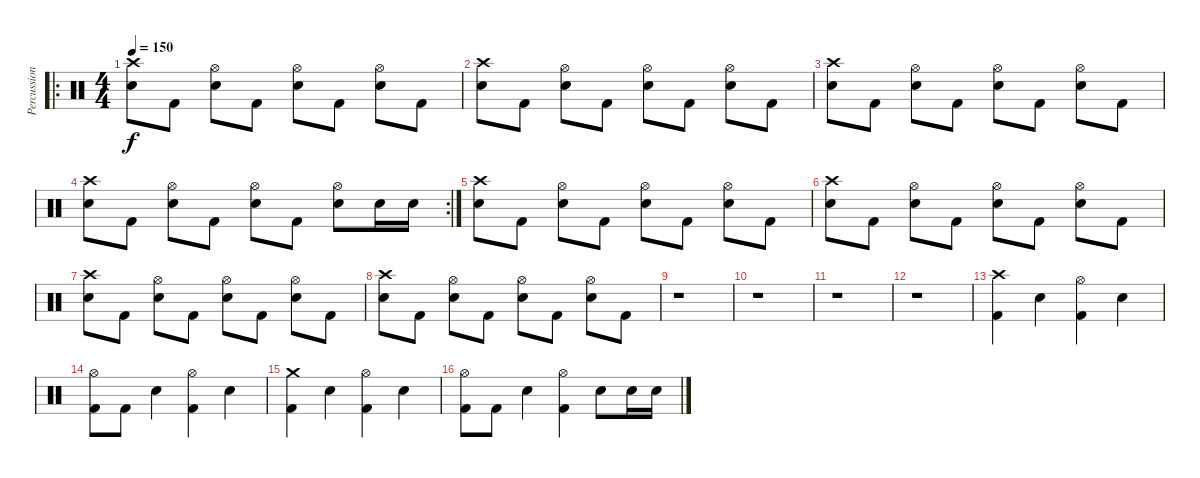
\track ("Percussion" "Percussion") {instrument percussion}
\staff {score}
\articulation defaults
\ro
\ts (4 4)
\tempo 150
\clef neutral
\ks c
("Crash high (hit)" "Snare (hit) 2").8{dy f} "Kick (hit) 2".8 ("Hi-Hat (open)" "Snare (hit) 2").8 "Kick (hit) 2".8 ("Hi-Hat (open)" "Snare (hit) 2").8 "Kick (hit) 2".8 ("Hi-Hat (open)" "Snare (hit) 2").8 "Kick (hit) 2".8 |
("Crash high (hit)" "Snare (hit) 2").8 "Kick (hit) 2".8 ("Hi-Hat (open)" "Snare (hit) 2").8 "Kick (hit) 2".8 ("Hi-Hat (open)" "Snare (hit) 2").8 "Kick (hit) 2".8 ("Hi-Hat (open)" "Snare (hit) 2").8 "Kick (hit) 2".8 |
("Crash high (hit)" "Snare (hit) 2").8 "Kick (hit) 2".8 ("Hi-Hat (open)" "Snare (hit) 2").8 "Kick (hit) 2".8 ("Hi-Hat (open)" "Snare (hit) 2").8 "Kick (hit) 2".8 ("Hi-Hat (open)" "Snare (hit) 2").8 "Kick (hit) 2".8 |
\rc 2
("Crash high (hit)" "Snare (hit) 2").8 "Kick (hit) 2".8 ("Hi-Hat (open)" "Snare (hit) 2").8 "Kick (hit) 2".8 ("Hi-Hat (open)" "Snare (hit) 2").8 "Kick (hit) 2".8 ("Hi-Hat (open)" "Snare (hit) 2").8 "Snare (hit) 2".16 "Snare (hit) 2".16 |
("Crash high (hit)" "Snare (hit) 2").8 "Kick (hit) 2".8 ("Hi-Hat (open)" "Snare (hit) 2").8 "Kick (hit) 2".8 ("Hi-Hat (open)" "Snare (hit) 2").8 "Kick (hit) 2".8 ("Hi-Hat (open)" "Snare (hit) 2").8 "Kick (hit) 2".8 |
("Crash high (hit)" "Snare (hit) 2").8 "Kick (hit) 2".8 ("Hi-Hat (open)" "Snare (hit) 2").8 "Kick (hit) 2".8 ("Hi-Hat (open)" "Snare (hit) 2").8 "Kick (hit) 2".8 ("Hi-Hat (open)" "Snare (hit) 2").8 "Kick (hit) 2".8 |
("Crash high (hit)" "Snare (hit) 2").8 "Kick (hit) 2".8 ("Hi-Hat (open)" "Snare (hit) 2").8 "Kick (hit) 2".8 ("Hi-Hat (open)" "Snare (hit) 2").8 "Kick (hit) 2".8 ("Hi-Hat (open)" "Snare (hit) 2").8 "Kick (hit) 2".8 |
("Crash high (hit)" "Snare (hit) 2").8 "Kick (hit) 2".8 ("Hi-Hat (open)" "Snare (hit) 2").8 "Kick (hit) 2".8 ("Hi-Hat (open)" "Snare (hit) 2").8 "Kick (hit) 2".8 ("Hi-Hat (open)" "Snare (hit) 2").8 "Kick (hit) 2".8 |
r.1 |
r.1 |
r.1 |
r.1 |
("Crash high (hit)" "Kick (hit) 2").4 "Snare (hit) 2".4 ("Hi-Hat (open)" "Kick (hit) 2").4 "Snare (hit) 2".4 |
("Hi-Hat (open)" "Kick (hit) 2").8 "Kick (hit) 2".8 "Snare (hit) 2".4 ("Hi-Hat (open)" "Kick (hit) 2").4 "Snare (hit) 2".4 |
("Crash medium (hit)" "Kick (hit) 2").4 "Snare (hit) 2".4 ("Hi-Hat (open)" "Kick (hit) 2").4 "Snare (hit) 2".4 |
("Hi-Hat (open)" "Kick (hit) 2").8 "Kick (hit) 2".8 "Snare (hit) 2".4 ("Hi-Hat (open)" "Kick (hit) 2").4 "Snare (hit) 2".8 "Snare (hit) 2".16 "Snare (hit) 2".16
